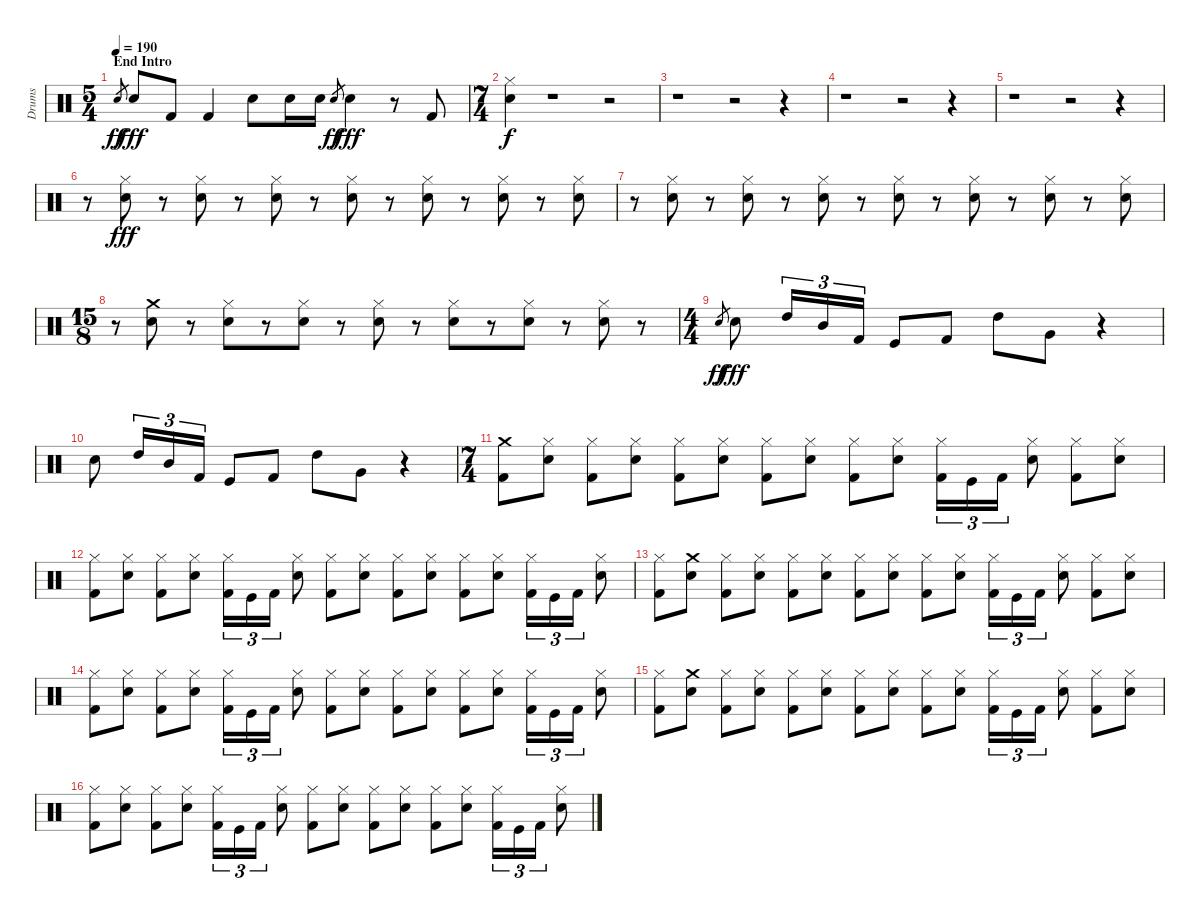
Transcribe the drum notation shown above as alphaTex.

\track ("Drums" "Drums") {instrument percussion}
\staff {score}
\articulation defaults
\ts (5 4)
\section ("" "End Intro")
\tempo 190
\clef neutral
\ks c "Snare (hit)".8{gr dy ff} "Snare (hit) 2".8{dy fff} "Kick (hit) 2".8 "Kick (hit) 2".4 "Snare (hit) 2".8 "Snare (hit) 2".16 "Snare (hit) 2".16 "Snare (hit)".8{gr dy ff} "Snare (hit) 2".4{dy fff}
r.8 "Kick (hit) 2".8 |
\ts (7 4)
("Snare (hit) 2" "Hi-Hat (closed)").4{dy f} r.1 r.2 |
r.1 r.2 r.4 |
r.1 r.2 r.4 |
r.1 r.2 r.4 |
r.8 ("Snare (hit) 2" "Hi-Hat (closed)").8{dy fff} r.8 ("Snare (hit) 2" "Hi-Hat (closed)").8 r.8 ("Snare (hit) 2" "Hi-Hat (closed)").8 r.8 ("Snare (hit) 2" "Hi-Hat (closed)").8 r.8 ("Snare (hit) 2" "Hi-Hat (closed)").8 r.8 ("Snare (hit) 2" "Hi-Hat (closed)").8 r.8 ("Snare (hit) 2" "Hi-Hat (closed)").8 |
r.8 ("Snare (hit) 2" "Hi-Hat (closed)").8 r.8 ("Snare (hit) 2" "Hi-Hat (closed)").8 r.8 ("Snare (hit) 2" "Hi-Hat (closed)").8 r.8 ("Snare (hit) 2" "Hi-Hat (closed)").8 r.8 ("Snare (hit) 2" "Hi-Hat (closed)").8 r.8 ("Snare (hit) 2" "Hi-Hat (closed)").8 r.8 ("Snare (hit) 2" "Hi-Hat (closed)").8 |
\ts (15 8)
r.8 ("Crash medium (hit)" "Snare (hit) 2").8 r.8 ("Snare (hit) 2" "Hi-Hat (closed)").8 r.8 ("Snare (hit) 2" "Hi-Hat (closed)").8 r.8 ("Snare (hit) 2" "Hi-Hat (closed)").8 r.8 ("Snare (hit) 2" "Hi-Hat (closed)").8 r.8 ("Snare (hit) 2" "Hi-Hat (closed)").8 r.8 ("Snare (hit) 2" "Hi-Hat (closed)").8 r.8 |
\ts (4 4)
"Snare (hit)".8{gr dy ff} "Snare (hit) 2".8{dy fff} "High Tom (hit)".16{tu (3 2)} "Mid Tom (hit)".16{tu (3 2)} "Kick (hit) 2".16{tu (3 2)} "Kick (hit)".8 "Kick (hit) 2".8 "High Tom (hit)".8 "Very Low Tom (hit)".8 r.4 |
"Snare (hit) 2".8 "High Tom (hit)".16{tu (3 2)} "Mid Tom (hit)".16{tu (3 2)} "Kick (hit) 2".16{tu (3 2)} "Kick (hit)".8 "Kick (hit) 2".8 "High Tom (hit)".8 "Very Low Tom (hit)".8 r.4 |
\ts (7 4)
("Crash medium (hit)" "Kick (hit) 2").8 ("Snare (hit) 2" "Hi-Hat (closed)").8 ("Hi-Hat (closed)" "Kick (hit) 2").8 ("Snare (hit) 2" "Hi-Hat (closed)").8 ("Hi-Hat (closed)" "Kick (hit) 2").8 ("Snare (hit) 2" "Hi-Hat (closed)").8 ("Hi-Hat (closed)" "Kick (hit) 2").8 ("Snare (hit) 2" "Hi-Hat (closed)").8 ("Hi-Hat (closed)" "Kick (hit) 2").8 ("Snare (hit) 2" "Hi-Hat (closed)").8 ("Hi-Hat (closed)" "Kick (hit) 2").16{tu (3 2)} "Kick (hit)".16{tu (3 2)} "Kick (hit) 2".16{tu (3 2)} ("Snare (hit) 2" "Hi-Hat (closed)").8 ("Hi-Hat (closed)" "Kick (hit) 2").8 ("Snare (hit) 2" "Hi-Hat (closed)").8 |
("Hi-Hat (closed)" "Kick (hit) 2").8 ("Snare (hit) 2" "Hi-Hat (closed)").8 ("Hi-Hat (closed)" "Kick (hit) 2").8 ("Snare (hit) 2" "Hi-Hat (closed)").8 ("Hi-Hat (closed)" "Kick (hit) 2").16{tu (3 2)} "Kick (hit)".16{tu (3 2)} "Kick (hit) 2".16{tu (3 2)} ("Snare (hit) 2" "Hi-Hat (closed)").8 ("Hi-Hat (closed)" "Kick (hit) 2").8 ("Snare (hit) 2" "Hi-Hat (closed)").8 ("Hi-Hat (closed)" "Kick (hit) 2").8 ("Snare (hit) 2" "Hi-Hat (closed)").8 ("Kick (hit) 2" "Hi-Hat (closed)").8 ("Snare (hit) 2" "Hi-Hat (closed)").8 ("Kick (hit) 2" "Hi-Hat (closed)").16{tu (3 2)} "Kick (hit)".16{tu (3 2)} "Kick (hit) 2".16{tu (3 2)} ("Snare (hit) 2" "Hi-Hat (closed)").8 |
("Hi-Hat (closed)" "Kick (hit) 2").8 ("Crash medium (hit)" "Snare (hit) 2").8 ("Hi-Hat (closed)" "Kick (hit) 2").8 ("Snare (hit) 2" "Hi-Hat (closed)").8 ("Hi-Hat (closed)" "Kick (hit) 2").8 ("Snare (hit) 2" "Hi-Hat (closed)").8 ("Hi-Hat (closed)" "Kick (hit) 2").8 ("Snare (hit) 2" "Hi-Hat (closed)").8 ("Hi-Hat (closed)" "Kick (hit) 2").8 ("Snare (hit) 2" "Hi-Hat (closed)").8 ("Hi-Hat (closed)" "Kick (hit) 2").16{tu (3 2)} "Kick (hit)".16{tu (3 2)} "Kick (hit) 2".16{tu (3 2)} ("Snare (hit) 2" "Hi-Hat (closed)").8 ("Hi-Hat (closed)" "Kick (hit) 2").8 ("Snare (hit) 2" "Hi-Hat (closed)").8 |
("Hi-Hat (closed)" "Kick (hit) 2").8 ("Snare (hit) 2" "Hi-Hat (closed)").8 ("Hi-Hat (closed)" "Kick (hit) 2").8 ("Snare (hit) 2" "Hi-Hat (closed)").8 ("Hi-Hat (closed)" "Kick (hit) 2").16{tu (3 2)} "Kick (hit)".16{tu (3 2)} "Kick (hit) 2".16{tu (3 2)} ("Snare (hit) 2" "Hi-Hat (closed)").8 ("Hi-Hat (closed)" "Kick (hit) 2").8 ("Snare (hit) 2" "Hi-Hat (closed)").8 ("Hi-Hat (closed)" "Kick (hit) 2").8 ("Snare (hit) 2" "Hi-Hat (closed)").8 ("Kick (hit) 2" "Hi-Hat (closed)").8 ("Snare (hit) 2" "Hi-Hat (closed)").8 ("Kick (hit) 2" "Hi-Hat (closed)").16{tu (3 2)} "Kick (hit)".16{tu (3 2)} "Kick (hit) 2".16{tu (3 2)} ("Snare (hit) 2" "Hi-Hat (closed)").8 |
("Hi-Hat (closed)" "Kick (hit) 2").8 ("Crash medium (hit)" "Snare (hit) 2").8 ("Hi-Hat (closed)" "Kick (hit) 2").8 ("Snare (hit) 2" "Hi-Hat (closed)").8 ("Hi-Hat (closed)" "Kick (hit) 2").8 ("Snare (hit) 2" "Hi-Hat (closed)").8 ("Hi-Hat (closed)" "Kick (hit) 2").8 ("Snare (hit) 2" "Hi-Hat (closed)").8 ("Hi-Hat (closed)" "Kick (hit) 2").8 ("Snare (hit) 2" "Hi-Hat (closed)").8 ("Hi-Hat (closed)" "Kick (hit) 2").16{tu (3 2)} "Kick (hit)".16{tu (3 2)} "Kick (hit) 2".16{tu (3 2)} ("Snare (hit) 2" "Hi-Hat (closed)").8 ("Hi-Hat (closed)" "Kick (hit) 2").8 ("Snare (hit) 2" "Hi-Hat (closed)").8 |
("Hi-Hat (closed)" "Kick (hit) 2").8 ("Snare (hit) 2" "Hi-Hat (closed)").8 ("Hi-Hat (closed)" "Kick (hit) 2").8 ("Snare (hit) 2" "Hi-Hat (closed)").8 ("Hi-Hat (closed)" "Kick (hit) 2").16{tu (3 2)} "Kick (hit)".16{tu (3 2)} "Kick (hit) 2".16{tu (3 2)} ("Snare (hit) 2" "Hi-Hat (closed)").8 ("Hi-Hat (closed)" "Kick (hit) 2").8 ("Snare (hit) 2" "Hi-Hat (closed)").8 ("Hi-Hat (closed)" "Kick (hit) 2").8 ("Snare (hit) 2" "Hi-Hat (closed)").8 ("Kick (hit) 2" "Hi-Hat (closed)").8 ("Snare (hit) 2" "Hi-Hat (closed)").8 ("Kick (hit) 2" "Hi-Hat (closed)").16{tu (3 2)} "Kick (hit)".16{tu (3 2)} "Kick (hit) 2".16{tu (3 2)} ("Snare (hit) 2" "Hi-Hat (closed)").8
